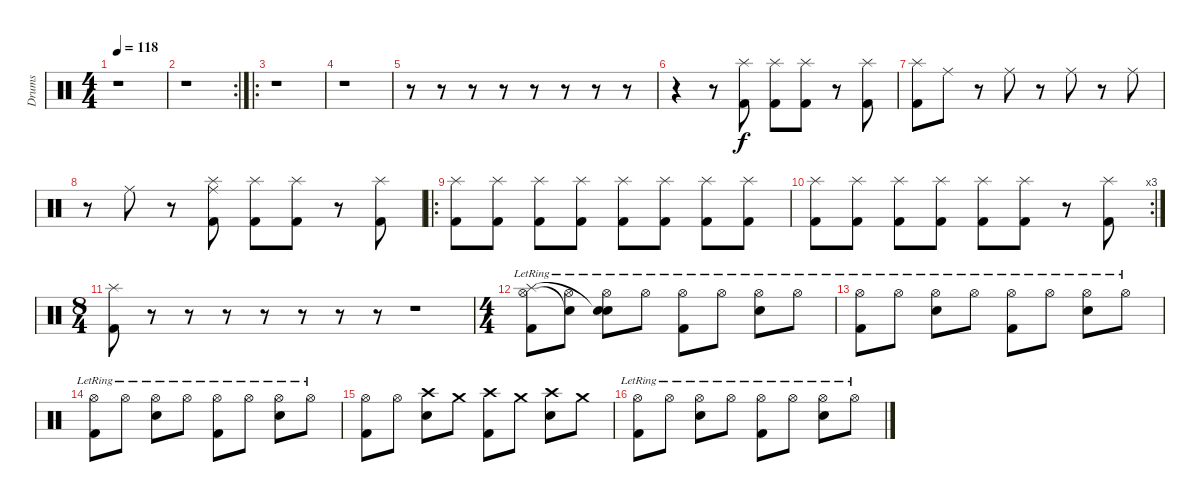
\track ("Drums" "Drums") {instrument percussion}
\staff {score}
\articulation defaults
\ts (4 4)
\tempo 118
\clef neutral
\ks c
r.1{dy f} |
\rc 2
r.1 |
\ro
r.1 |
r.1 |
r.8 r.8 r.8 r.8 r.8 r.8 r.8 r.8 |
r.4 r.8 ("Splash (hit)" "Kick (hit) 2").8 ("Splash (hit)" "Kick (hit) 2").8 ("Splash (hit)" "Kick (hit) 2").8 r.8 ("Splash (hit)" "Kick (hit) 2").8 |
("Splash (hit)" "Kick (hit) 2").8 "Ride (middle)".8 r.8 "Ride (middle)".8 r.8 "Ride (middle)".8 r.8 "Ride (middle)".8 |
r.8 "Ride (middle)".8 r.8 ("Ride (middle)" "Splash (hit)" "Kick (hit) 2").8 ("Splash (hit)" "Kick (hit) 2").8 ("Splash (hit)" "Kick (hit) 2").8 r.8 ("Splash (hit)" "Kick (hit) 2").8 |
\ro
("Splash (hit)" "Kick (hit) 2").8 ("Splash (hit)" "Kick (hit) 2").8 ("Splash (hit)" "Kick (hit) 2").8 ("Splash (hit)" "Kick (hit) 2").8 ("Splash (hit)" "Kick (hit) 2").8 ("Splash (hit)" "Kick (hit) 2").8 ("Splash (hit)" "Kick (hit) 2").8 ("Splash (hit)" "Kick (hit) 2").8 |
\rc 3
("Splash (hit)" "Kick (hit) 2").8 ("Splash (hit)" "Kick (hit) 2").8 ("Splash (hit)" "Kick (hit) 2").8 ("Splash (hit)" "Kick (hit) 2").8 ("Splash (hit)" "Kick (hit) 2").8 ("Splash (hit)" "Kick (hit) 2").8 r.8 ("Splash (hit)" "Kick (hit) 2").8 |
\ts (8 4)
("Splash (hit)" "Kick (hit) 2").8 r.8 r.8 r.8 r.8 r.8 r.8 r.8 r.1 |
\ts (4 4)
("Kick (hit) 2" "Hi-Hat (open)"{lr} "Splash (hit)").8 ("Hi-Hat (open)"{lr} "Snare (hit)"{t}).8 ("Hi-Hat (open)"{lr} "Snare (hit) 2" "Snare (hit)"{t}).8 "Hi-Hat (open)"{lr}.8 ("Hi-Hat (open)"{lr} "Kick (hit) 2").8 "Hi-Hat (open)"{lr}.8 ("Hi-Hat (open)"{lr} "Snare (hit) 2").8 "Hi-Hat (open)"{lr}.8 |
("Kick (hit) 2" "Hi-Hat (open)"{lr}).8 "Hi-Hat (open)"{lr}.8 ("Hi-Hat (open)"{lr} "Snare (hit) 2").8 "Hi-Hat (open)"{lr}.8 ("Hi-Hat (open)"{lr} "Kick (hit) 2").8 "Hi-Hat (open)"{lr}.8 ("Hi-Hat (open)"{lr} "Snare (hit) 2").8 "Hi-Hat (open)"{lr}.8 |
("Kick (hit) 2" "Hi-Hat (open)"{lr}).8 "Hi-Hat (open)"{lr}.8 ("Hi-Hat (open)"{lr} "Snare (hit) 2").8 "Hi-Hat (open)"{lr}.8 ("Hi-Hat (open)"{lr} "Kick (hit) 2").8 "Hi-Hat (open)"{lr}.8 ("Hi-Hat (open)"{lr} "Snare (hit) 2").8 "Hi-Hat (open)"{lr}.8 |
("Hi-Hat (open)" "Kick (hit) 2").8 "Hi-Hat (open)".8 ("Crash high (hit)" "Snare (hit) 2").8 "Crash medium (hit)".8 ("Crash high (hit)" "Kick (hit) 2").8 "Crash medium (hit)".8 ("Crash high (hit)" "Snare (hit) 2").8 "Crash medium (hit)".8 |
("Kick (hit) 2" "Hi-Hat (open)"{lr}).8 "Hi-Hat (open)"{lr}.8 ("Hi-Hat (open)"{lr} "Snare (hit) 2").8 "Hi-Hat (open)"{lr}.8 ("Hi-Hat (open)"{lr} "Kick (hit) 2").8 "Hi-Hat (open)"{lr}.8 ("Hi-Hat (open)"{lr} "Snare (hit) 2").8 "Hi-Hat (open)"{lr}.8
